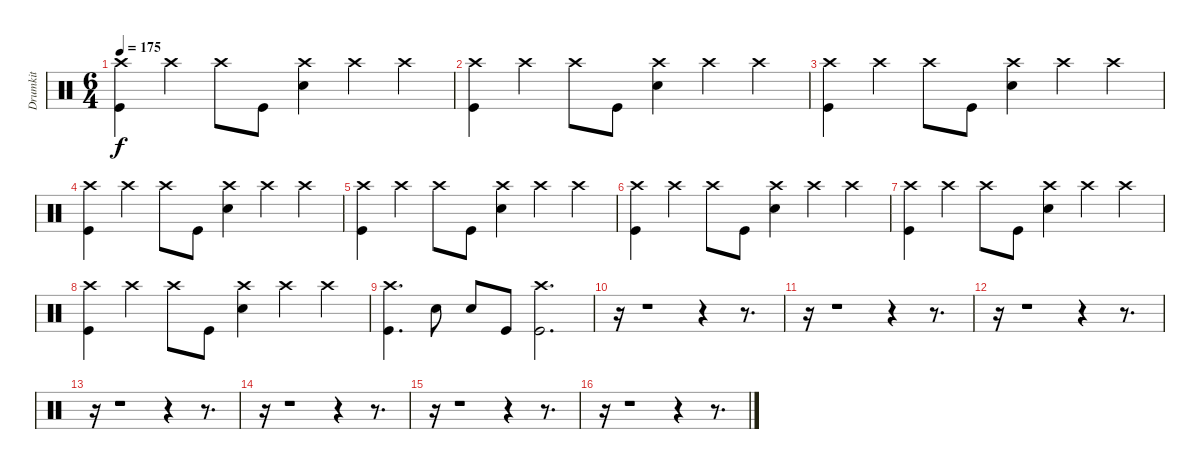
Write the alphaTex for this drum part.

\track ("Drumkit" "Drumkit") {instrument percussion}
\staff {score}
\articulation defaults
\ts (6 4)
\tempo 175
\clef neutral
\ks c
("Kick (hit)" "Crash high (hit)").4{dy f} "Crash high (hit)".4 "Crash high (hit)".8 "Kick (hit)".8 ("Snare (hit) 2" "Crash high (hit)").4 "Crash high (hit)".4 "Crash high (hit)".4 |
("Kick (hit)" "Crash high (hit)").4 "Crash high (hit)".4 "Crash high (hit)".8 "Kick (hit)".8 ("Snare (hit) 2" "Crash high (hit)").4 "Crash high (hit)".4 "Crash high (hit)".4 |
("Kick (hit)" "Crash high (hit)").4 "Crash high (hit)".4 "Crash high (hit)".8 "Kick (hit)".8 ("Snare (hit) 2" "Crash high (hit)").4 "Crash high (hit)".4 "Crash high (hit)".4 |
("Kick (hit)" "Crash high (hit)").4 "Crash high (hit)".4 "Crash high (hit)".8 "Kick (hit)".8 ("Snare (hit) 2" "Crash high (hit)").4 "Crash high (hit)".4 "Crash high (hit)".4 |
("Kick (hit)" "Crash high (hit)").4 "Crash high (hit)".4 "Crash high (hit)".8 "Kick (hit)".8 ("Snare (hit) 2" "Crash high (hit)").4 "Crash high (hit)".4 "Crash high (hit)".4 |
("Kick (hit)" "Crash high (hit)").4 "Crash high (hit)".4 "Crash high (hit)".8 "Kick (hit)".8 ("Snare (hit) 2" "Crash high (hit)").4 "Crash high (hit)".4 "Crash high (hit)".4 |
("Kick (hit)" "Crash high (hit)").4 "Crash high (hit)".4 "Crash high (hit)".8 "Kick (hit)".8 ("Snare (hit) 2" "Crash high (hit)").4 "Crash high (hit)".4 "Crash high (hit)".4 |
("Kick (hit)" "Crash high (hit)").4 "Crash high (hit)".4 "Crash high (hit)".8 "Kick (hit)".8 ("Snare (hit) 2" "Crash high (hit)").4 "Crash high (hit)".4 "Crash high (hit)".4 |
("Kick (hit)" "Crash high (hit)").4{d} "Snare (hit) 2".8 "Snare (hit) 2".8 "Kick (hit)".8 ("Kick (hit)" "Crash high (hit)").2{d} |
r.16 r.1 r.4 r.8{d} |
r.16 r.1 r.4 r.8{d} |
r.16 r.1 r.4 r.8{d} |
r.16 r.1 r.4 r.8{d} |
r.16 r.1 r.4 r.8{d} |
r.16 r.1 r.4 r.8{d} |
r.16 r.1 r.4 r.8{d}
